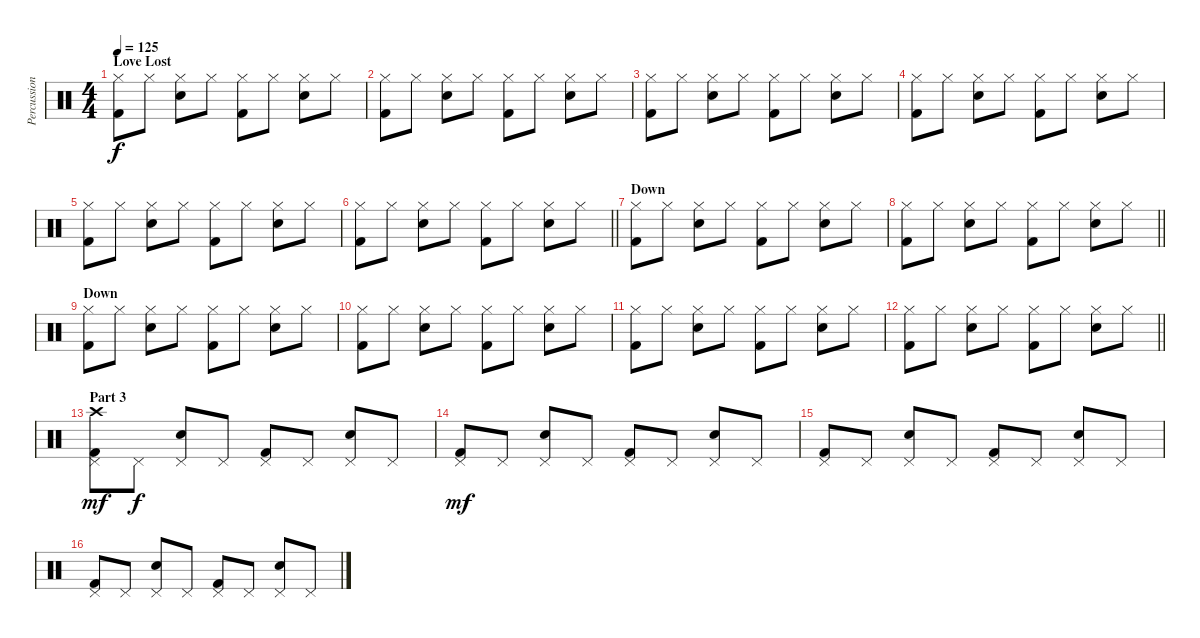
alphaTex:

\track ("Percussion" "Percussion") {instrument percussion}
\staff {score}
\articulation defaults
\ts (4 4)
\section ("" "Love Lost")
\tempo 125
\clef neutral
\ks c
("Hi-Hat (closed)" "Kick (hit) 2").8{dy f} "Hi-Hat (closed)".8 ("Hi-Hat (closed)" "Electric Snare (hit)").8 "Hi-Hat (closed)".8 ("Hi-Hat (closed)" "Kick (hit) 2").8 "Hi-Hat (closed)".8 ("Hi-Hat (closed)" "Electric Snare (hit)").8 "Hi-Hat (closed)".8 |
("Hi-Hat (closed)" "Kick (hit) 2").8 "Hi-Hat (closed)".8 ("Hi-Hat (closed)" "Electric Snare (hit)").8 "Hi-Hat (closed)".8 ("Hi-Hat (closed)" "Kick (hit) 2").8 "Hi-Hat (closed)".8 ("Hi-Hat (closed)" "Electric Snare (hit)").8 "Hi-Hat (closed)".8 |
("Hi-Hat (closed)" "Kick (hit) 2").8 "Hi-Hat (closed)".8 ("Hi-Hat (closed)" "Electric Snare (hit)").8 "Hi-Hat (closed)".8 ("Hi-Hat (closed)" "Kick (hit) 2").8 "Hi-Hat (closed)".8 ("Hi-Hat (closed)" "Electric Snare (hit)").8 "Hi-Hat (closed)".8 |
("Hi-Hat (closed)" "Kick (hit) 2").8 "Hi-Hat (closed)".8 ("Hi-Hat (closed)" "Electric Snare (hit)").8 "Hi-Hat (closed)".8 ("Hi-Hat (closed)" "Kick (hit) 2").8 "Hi-Hat (closed)".8 ("Hi-Hat (closed)" "Electric Snare (hit)").8 "Hi-Hat (closed)".8 |
("Hi-Hat (closed)" "Kick (hit) 2").8 "Hi-Hat (closed)".8 ("Hi-Hat (closed)" "Electric Snare (hit)").8 "Hi-Hat (closed)".8 ("Hi-Hat (closed)" "Kick (hit) 2").8 "Hi-Hat (closed)".8 ("Hi-Hat (closed)" "Electric Snare (hit)").8 "Hi-Hat (closed)".8 |
\barLineRight lightlight
("Hi-Hat (closed)" "Kick (hit) 2").8 "Hi-Hat (closed)".8 ("Hi-Hat (closed)" "Electric Snare (hit)").8 "Hi-Hat (closed)".8 ("Hi-Hat (closed)" "Kick (hit) 2").8 "Hi-Hat (closed)".8 ("Hi-Hat (closed)" "Electric Snare (hit)").8 "Hi-Hat (closed)".8 |
\section ("" "Down")
("Hi-Hat (closed)" "Kick (hit) 2").8 "Hi-Hat (closed)".8 ("Hi-Hat (closed)" "Electric Snare (hit)").8 "Hi-Hat (closed)".8 ("Hi-Hat (closed)" "Kick (hit) 2").8 "Hi-Hat (closed)".8 ("Hi-Hat (closed)" "Electric Snare (hit)").8 "Hi-Hat (closed)".8 |
\barLineRight lightlight
("Hi-Hat (closed)" "Kick (hit) 2").8 "Hi-Hat (closed)".8 ("Hi-Hat (closed)" "Electric Snare (hit)").8 "Hi-Hat (closed)".8 ("Hi-Hat (closed)" "Kick (hit) 2").8 "Hi-Hat (closed)".8 ("Hi-Hat (closed)" "Electric Snare (hit)").8 "Hi-Hat (closed)".8 |
\section ("" "Down")
("Hi-Hat (closed)" "Kick (hit) 2").8 "Hi-Hat (closed)".8 ("Hi-Hat (closed)" "Electric Snare (hit)").8 "Hi-Hat (closed)".8 ("Hi-Hat (closed)" "Kick (hit) 2").8 "Hi-Hat (closed)".8 ("Hi-Hat (closed)" "Electric Snare (hit)").8 "Hi-Hat (closed)".8 |
("Hi-Hat (closed)" "Kick (hit) 2").8 "Hi-Hat (closed)".8 ("Hi-Hat (closed)" "Electric Snare (hit)").8 "Hi-Hat (closed)".8 ("Hi-Hat (closed)" "Kick (hit) 2").8 "Hi-Hat (closed)".8 ("Hi-Hat (closed)" "Electric Snare (hit)").8 "Hi-Hat (closed)".8 |
("Hi-Hat (closed)" "Kick (hit) 2").8 "Hi-Hat (closed)".8 ("Hi-Hat (closed)" "Electric Snare (hit)").8 "Hi-Hat (closed)".8 ("Hi-Hat (closed)" "Kick (hit) 2").8 "Hi-Hat (closed)".8 ("Hi-Hat (closed)" "Electric Snare (hit)").8 "Hi-Hat (closed)".8 |
\barLineRight lightlight
("Hi-Hat (closed)" "Kick (hit) 2").8 "Hi-Hat (closed)".8 ("Hi-Hat (closed)" "Electric Snare (hit)").8 "Hi-Hat (closed)".8 ("Hi-Hat (closed)" "Kick (hit) 2").8 "Hi-Hat (closed)".8 ("Hi-Hat (closed)" "Electric Snare (hit)").8 "Hi-Hat (closed)".8 |
\section ("" "Part 3")
("Pedal Hi-Hat (hit)" "Kick (hit) 2" "Crash high (hit)").8{dy mf} "Pedal Hi-Hat (hit)".8{dy f} ("Pedal Hi-Hat (hit)" "Electric Snare (hit)").8 "Pedal Hi-Hat (hit)".8 ("Pedal Hi-Hat (hit)" "Kick (hit) 2").8 "Pedal Hi-Hat (hit)".8 ("Pedal Hi-Hat (hit)" "Electric Snare (hit)").8 "Pedal Hi-Hat (hit)".8 |
("Pedal Hi-Hat (hit)" "Kick (hit) 2").8{dy mf} "Pedal Hi-Hat (hit)".8 ("Pedal Hi-Hat (hit)" "Electric Snare (hit)").8 "Pedal Hi-Hat (hit)".8 ("Pedal Hi-Hat (hit)" "Kick (hit) 2").8 "Pedal Hi-Hat (hit)".8 ("Pedal Hi-Hat (hit)" "Electric Snare (hit)").8 "Pedal Hi-Hat (hit)".8 |
("Pedal Hi-Hat (hit)" "Kick (hit) 2").8 "Pedal Hi-Hat (hit)".8 ("Pedal Hi-Hat (hit)" "Electric Snare (hit)").8 "Pedal Hi-Hat (hit)".8 ("Pedal Hi-Hat (hit)" "Kick (hit) 2").8 "Pedal Hi-Hat (hit)".8 ("Pedal Hi-Hat (hit)" "Electric Snare (hit)").8 "Pedal Hi-Hat (hit)".8 |
("Pedal Hi-Hat (hit)" "Kick (hit) 2").8 "Pedal Hi-Hat (hit)".8 ("Pedal Hi-Hat (hit)" "Electric Snare (hit)").8 "Pedal Hi-Hat (hit)".8 ("Pedal Hi-Hat (hit)" "Kick (hit) 2").8 "Pedal Hi-Hat (hit)".8 ("Pedal Hi-Hat (hit)" "Electric Snare (hit)").8 "Pedal Hi-Hat (hit)".8
